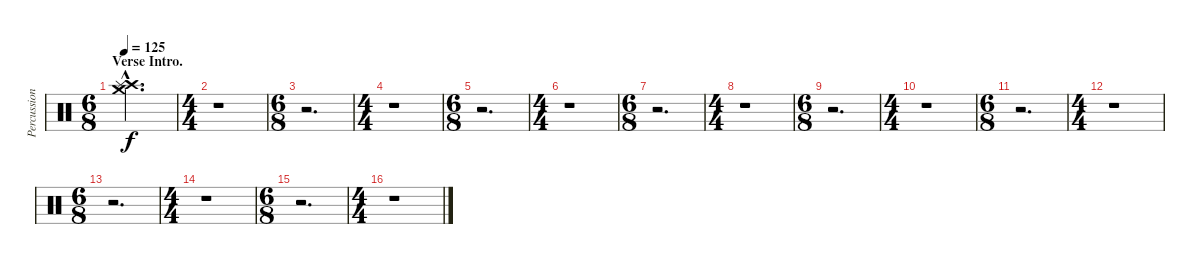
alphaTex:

\track ("Percussion" "Percussion") {instrument percussion}
\staff {score}
\articulation defaults
\ts (6 8)
\section ("" "Verse Intro.")
\tempo 125
\clef neutral
\ks c
("Crash medium (hit)"{hac} "Crash high (hit)"{hac} "Splash (hit)"{hac}).2{d dy f} |
\ts (4 4)
r.1 |
\ts (6 8)
r.2{d} |
\ts (4 4)
r.1 |
\ts (6 8)
r.2{d} |
\ts (4 4)
r.1 |
\ts (6 8)
r.2{d} |
\ts (4 4)
r.1 |
\ts (6 8)
r.2{d} |
\ts (4 4)
r.1 |
\ts (6 8)
r.2{d} |
\ts (4 4)
r.1 |
\ts (6 8)
r.2{d} |
\ts (4 4)
r.1 |
\ts (6 8)
r.2{d} |
\ts (4 4)
r.1
